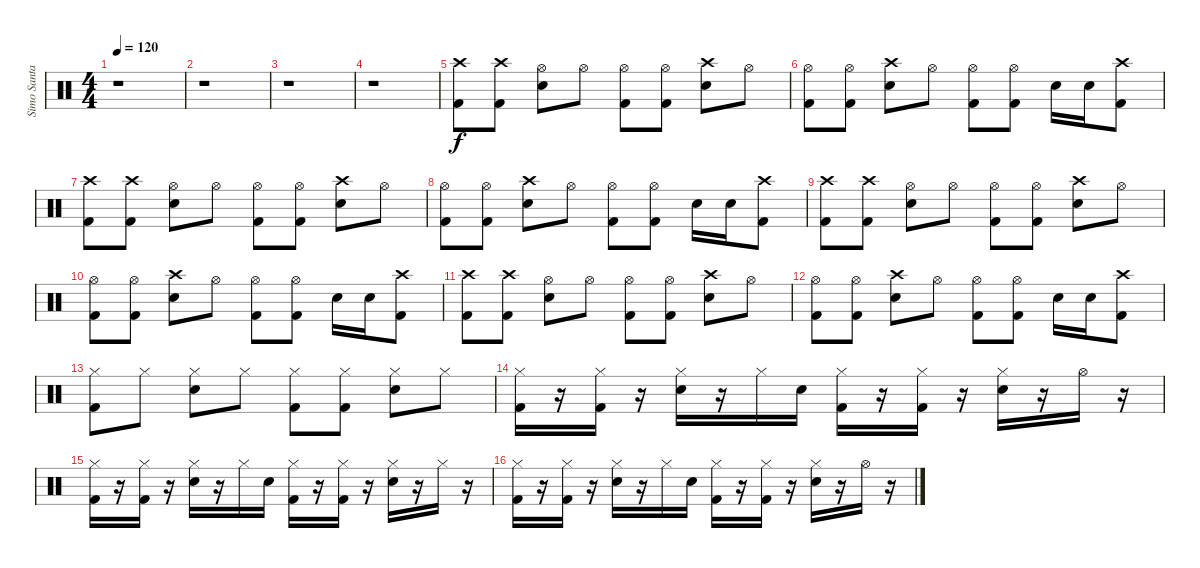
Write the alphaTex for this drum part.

\track ("Simo Santapukki" "Simo Santa") {instrument percussion}
\staff {score}
\articulation defaults
\ts (4 4)
\tempo 120
\clef neutral
\ks c
r.1{dy f} |
r.1 |
r.1 |
r.1 |
("Crash high (hit)" "Kick (hit) 2").8 ("Crash high (hit)" "Kick (hit) 2").8 ("Hi-Hat (open)" "Snare (hit) 2").8 "Hi-Hat (open)".8 ("Hi-Hat (open)" "Kick (hit) 2").8 ("Hi-Hat (open)" "Kick (hit) 2").8 ("Crash high (hit)" "Snare (hit) 2").8 "Hi-Hat (open)".8 |
("Hi-Hat (open)" "Kick (hit) 2").8 ("Hi-Hat (open)" "Kick (hit) 2").8 ("Crash high (hit)" "Snare (hit) 2").8 "Hi-Hat (open)".8 ("Hi-Hat (open)" "Kick (hit) 2").8 ("Hi-Hat (open)" "Kick (hit) 2").8 "Snare (hit) 2".16 "Snare (hit) 2".16 ("Crash high (hit)" "Kick (hit) 2").8 |
("Crash high (hit)" "Kick (hit) 2").8 ("Crash high (hit)" "Kick (hit) 2").8 ("Hi-Hat (open)" "Snare (hit) 2").8 "Hi-Hat (open)".8 ("Hi-Hat (open)" "Kick (hit) 2").8 ("Hi-Hat (open)" "Kick (hit) 2").8 ("Crash high (hit)" "Snare (hit) 2").8 "Hi-Hat (open)".8 |
("Hi-Hat (open)" "Kick (hit) 2").8 ("Hi-Hat (open)" "Kick (hit) 2").8 ("Crash high (hit)" "Snare (hit) 2").8 "Hi-Hat (open)".8 ("Hi-Hat (open)" "Kick (hit) 2").8 ("Hi-Hat (open)" "Kick (hit) 2").8 "Snare (hit) 2".16 "Snare (hit) 2".16 ("Crash high (hit)" "Kick (hit) 2").8 |
("Crash high (hit)" "Kick (hit) 2").8 ("Crash high (hit)" "Kick (hit) 2").8 ("Hi-Hat (open)" "Snare (hit) 2").8 "Hi-Hat (open)".8 ("Hi-Hat (open)" "Kick (hit) 2").8 ("Hi-Hat (open)" "Kick (hit) 2").8 ("Crash high (hit)" "Snare (hit) 2").8 "Hi-Hat (open)".8 |
("Hi-Hat (open)" "Kick (hit) 2").8 ("Hi-Hat (open)" "Kick (hit) 2").8 ("Crash high (hit)" "Snare (hit) 2").8 "Hi-Hat (open)".8 ("Hi-Hat (open)" "Kick (hit) 2").8 ("Hi-Hat (open)" "Kick (hit) 2").8 "Snare (hit) 2".16 "Snare (hit) 2".16 ("Crash high (hit)" "Kick (hit) 2").8 |
("Crash high (hit)" "Kick (hit) 2").8 ("Crash high (hit)" "Kick (hit) 2").8 ("Hi-Hat (open)" "Snare (hit) 2").8 "Hi-Hat (open)".8 ("Hi-Hat (open)" "Kick (hit) 2").8 ("Hi-Hat (open)" "Kick (hit) 2").8 ("Crash high (hit)" "Snare (hit) 2").8 "Hi-Hat (open)".8 |
("Hi-Hat (open)" "Kick (hit) 2").8 ("Hi-Hat (open)" "Kick (hit) 2").8 ("Crash high (hit)" "Snare (hit) 2").8 "Hi-Hat (open)".8 ("Hi-Hat (open)" "Kick (hit) 2").8 ("Hi-Hat (open)" "Kick (hit) 2").8 "Snare (hit) 2".16 "Snare (hit) 2".16 ("Crash high (hit)" "Kick (hit) 2").8 |
("Hi-Hat (closed)" "Kick (hit) 2").8 "Hi-Hat (closed)".8 ("Hi-Hat (closed)" "Snare (hit) 2").8 "Hi-Hat (closed)".8 ("Hi-Hat (closed)" "Kick (hit) 2").8 ("Hi-Hat (closed)" "Kick (hit) 2").8 ("Hi-Hat (closed)" "Snare (hit) 2").8 "Hi-Hat (closed)".8 |
("Hi-Hat (closed)" "Kick (hit) 2").16 r.16 ("Hi-Hat (closed)" "Kick (hit) 2").16 r.16 ("Hi-Hat (closed)" "Snare (hit) 2").16 r.16 "Hi-Hat (closed)".16 "Snare (hit) 2".16 ("Hi-Hat (closed)" "Kick (hit) 2").16 r.16 ("Hi-Hat (closed)" "Kick (hit) 2").16 r.16 ("Hi-Hat (closed)" "Snare (hit) 2").16 r.16 "Hi-Hat (open)".16 r.16 |
("Hi-Hat (closed)" "Kick (hit) 2").16 r.16 ("Hi-Hat (closed)" "Kick (hit) 2").16 r.16 ("Hi-Hat (closed)" "Snare (hit) 2").16 r.16 "Hi-Hat (closed)".16 "Snare (hit) 2".16 ("Hi-Hat (closed)" "Kick (hit) 2").16 r.16 ("Hi-Hat (closed)" "Kick (hit) 2").16 r.16 ("Hi-Hat (closed)" "Snare (hit) 2").16 r.16 "Hi-Hat (closed)".16 r.16 |
("Hi-Hat (closed)" "Kick (hit) 2").16 r.16 ("Hi-Hat (closed)" "Kick (hit) 2").16 r.16 ("Hi-Hat (closed)" "Snare (hit) 2").16 r.16 "Hi-Hat (closed)".16 "Snare (hit) 2".16 ("Hi-Hat (closed)" "Kick (hit) 2").16 r.16 ("Hi-Hat (closed)" "Kick (hit) 2").16 r.16 ("Hi-Hat (closed)" "Snare (hit) 2").16 r.16 "Hi-Hat (open)".16 r.16
